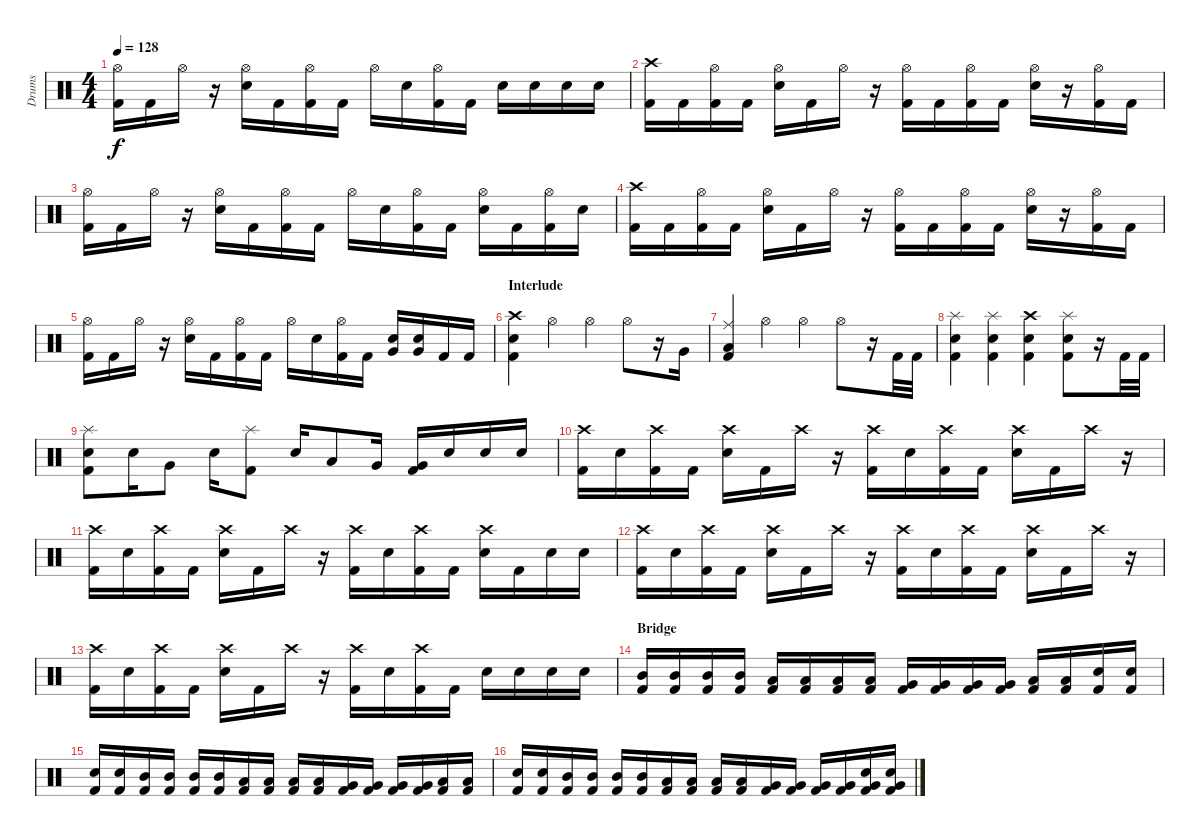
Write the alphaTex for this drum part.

\track ("Drums" "Drums") {instrument percussion}
\staff {score}
\articulation defaults
\ts (4 4)
\tempo 128
\clef neutral
\ks c
("Hi-Hat (open)" "Kick (hit) 2").16{dy f} "Kick (hit) 2".16 "Hi-Hat (open)".16 r.16 ("Hi-Hat (open)" "Electric Snare (hit)").16 "Kick (hit) 2".16 ("Hi-Hat (open)" "Kick (hit) 2").16 "Kick (hit) 2".16 "Hi-Hat (open)".16 "Electric Snare (hit)".16 ("Hi-Hat (open)" "Kick (hit) 2").16 "Kick (hit) 2".16 "Electric Snare (hit)".16 "Electric Snare (hit)".16 "Electric Snare (hit)".16 "Electric Snare (hit)".16 |
("Crash high (hit)" "Kick (hit) 2").16 "Kick (hit) 2".16 ("Hi-Hat (open)" "Kick (hit) 2").16 "Kick (hit) 2".16 ("Hi-Hat (open)" "Electric Snare (hit)").16 "Kick (hit) 2".16 "Hi-Hat (open)".16 r.16 ("Hi-Hat (open)" "Kick (hit) 2").16 "Kick (hit) 2".16 ("Hi-Hat (open)" "Kick (hit) 2").16 "Kick (hit) 2".16 ("Hi-Hat (open)" "Electric Snare (hit)").16 r.16 ("Hi-Hat (open)" "Kick (hit) 2").16 "Kick (hit) 2".16 |
("Hi-Hat (open)" "Kick (hit) 2").16 "Kick (hit) 2".16 "Hi-Hat (open)".16 r.16 ("Hi-Hat (open)" "Electric Snare (hit)").16 "Kick (hit) 2".16 ("Hi-Hat (open)" "Kick (hit) 2").16 "Kick (hit) 2".16 "Hi-Hat (open)".16 "Electric Snare (hit)".16 ("Hi-Hat (open)" "Kick (hit) 2").16 "Kick (hit) 2".16 ("Hi-Hat (open)" "Electric Snare (hit)").16 "Kick (hit) 2".16 ("Hi-Hat (open)" "Kick (hit) 2").16 "Electric Snare (hit)".16 |
("Crash high (hit)" "Kick (hit) 2").16 "Kick (hit) 2".16 ("Hi-Hat (open)" "Kick (hit) 2").16 "Kick (hit) 2".16 ("Hi-Hat (open)" "Electric Snare (hit)").16 "Kick (hit) 2".16 "Hi-Hat (open)".16 r.16 ("Hi-Hat (open)" "Kick (hit) 2").16 "Kick (hit) 2".16 ("Hi-Hat (open)" "Kick (hit) 2").16 "Kick (hit) 2".16 ("Hi-Hat (open)" "Electric Snare (hit)").16 r.16 ("Hi-Hat (open)" "Kick (hit) 2").16 "Kick (hit) 2".16 |
("Hi-Hat (open)" "Kick (hit) 2").16 "Kick (hit) 2".16 "Hi-Hat (open)".16 r.16 ("Hi-Hat (open)" "Electric Snare (hit)").16 "Kick (hit) 2".16 ("Hi-Hat (open)" "Kick (hit) 2").16 "Kick (hit) 2".16 "Hi-Hat (open)".16 "Electric Snare (hit)".16 ("Hi-Hat (open)" "Kick (hit) 2").16 "Kick (hit) 2".16 ("Very Low Tom (hit)" "Electric Snare (hit)").16 ("Very Low Tom (hit)" "Electric Snare (hit)").16 "Kick (hit) 2".16 "Kick (hit) 2".16 |
\section ("" "Interlude")
("Crash high (hit)" "Electric Snare (hit)" "Kick (hit) 2").4 "Hi-Hat (open)".4 "Hi-Hat (open)".4 "Hi-Hat (open)".8 r.16 "Very Low Tom (hit)".16 |
("Ride (middle)" "Low Floor Tom (hit)" "Kick (hit) 2").4 "Hi-Hat (open)".4 "Hi-Hat (open)".4 "Hi-Hat (open)".8 r.16 "Kick (hit) 2".32 "Kick (hit) 2".32 |
("Splash (hit)" "Electric Snare (hit)" "Kick (hit) 2").4 ("Splash (hit)" "Electric Snare (hit)" "Kick (hit) 2").4 ("Crash high (hit)" "Electric Snare (hit)" "Kick (hit) 2").4 ("Splash (hit)" "Electric Snare (hit)" "Kick (hit) 2").8 r.16 "Kick (hit) 2".32 "Kick (hit) 2".32 |
("Splash (hit)" "Electric Snare (hit)" "Kick (hit) 2").8 "Electric Snare (hit)".16 "Very Low Tom (hit)".8 "Electric Snare (hit)".16 ("Splash (hit)" "Kick (hit) 2").8 "Electric Snare (hit)".16 "Low Tom (hit)".8 "Very Low Tom (hit)".16 ("Very Low Tom (hit)" "Kick (hit) 2").16 "Electric Snare (hit)".16 "Electric Snare (hit)".16 "Electric Snare (hit)".16 |
("Crash high (hit)" "Kick (hit) 2").16 "Electric Snare (hit)".16 ("Crash high (hit)" "Kick (hit) 2").16 "Kick (hit) 2".16 ("Crash high (hit)" "Electric Snare (hit)").16 "Kick (hit) 2".16 "Crash high (hit)".16 r.16 ("Crash high (hit)" "Kick (hit) 2").16 "Electric Snare (hit)".16 ("Crash high (hit)" "Kick (hit) 2").16 "Kick (hit) 2".16 ("Crash high (hit)" "Electric Snare (hit)").16 "Kick (hit) 2".16 "Crash high (hit)".16 r.16 |
("Crash high (hit)" "Kick (hit) 2").16 "Electric Snare (hit)".16 ("Crash high (hit)" "Kick (hit) 2").16 "Kick (hit) 2".16 ("Crash high (hit)" "Electric Snare (hit)").16 "Kick (hit) 2".16 "Crash high (hit)".16 r.16 ("Crash high (hit)" "Kick (hit) 2").16 "Electric Snare (hit)".16 ("Crash high (hit)" "Kick (hit) 2").16 "Kick (hit) 2".16 ("Crash high (hit)" "Electric Snare (hit)").16 "Kick (hit) 2".16 "Electric Snare (hit)".16 "Electric Snare (hit)".16 |
("Crash high (hit)" "Kick (hit) 2").16 "Electric Snare (hit)".16 ("Crash high (hit)" "Kick (hit) 2").16 "Kick (hit) 2".16 ("Crash high (hit)" "Electric Snare (hit)").16 "Kick (hit) 2".16 "Crash high (hit)".16 r.16 ("Crash high (hit)" "Kick (hit) 2").16 "Electric Snare (hit)".16 ("Crash high (hit)" "Kick (hit) 2").16 "Kick (hit) 2".16 ("Crash high (hit)" "Electric Snare (hit)").16 "Kick (hit) 2".16 "Crash high (hit)".16 r.16 |
("Crash high (hit)" "Kick (hit) 2").16 "Electric Snare (hit)".16 ("Crash high (hit)" "Kick (hit) 2").16 "Kick (hit) 2".16 ("Crash high (hit)" "Electric Snare (hit)").16 "Kick (hit) 2".16 "Crash high (hit)".16 r.16 ("Crash high (hit)" "Kick (hit) 2").16 "Electric Snare (hit)".16 ("Crash high (hit)" "Kick (hit) 2").16 "Kick (hit) 2".16 "Electric Snare (hit)".16 "Electric Snare (hit)".16 "Electric Snare (hit)".16 "Electric Snare (hit)".16 |
\section ("" "Bridge")
("Mid Tom (hit)" "Kick (hit) 2").16 ("Mid Tom (hit)" "Kick (hit) 2").16 ("Mid Tom (hit)" "Kick (hit) 2").16 ("Mid Tom (hit)" "Kick (hit) 2").16 ("Low Tom (hit)" "Kick (hit) 2").16 ("Low Tom (hit)" "Kick (hit) 2").16 ("Low Tom (hit)" "Kick (hit) 2").16 ("Low Tom (hit)" "Kick (hit) 2").16 ("Very Low Tom (hit)" "Kick (hit) 2").16 ("Very Low Tom (hit)" "Kick (hit) 2").16 ("Very Low Tom (hit)" "Kick (hit) 2").16 ("Very Low Tom (hit)" "Kick (hit) 2").16 ("Low Floor Tom (hit)" "Kick (hit) 2").16 ("Low Floor Tom (hit)" "Kick (hit) 2").16 ("Electric Snare (hit)" "Kick (hit) 2").16 ("Electric Snare (hit)" "Kick (hit) 2").16 |
("Electric Snare (hit)" "Kick (hit) 2").16 ("Electric Snare (hit)" "Kick (hit) 2").16 ("Mid Tom (hit)" "Kick (hit) 2").16 ("Mid Tom (hit)" "Kick (hit) 2").16 ("Mid Tom (hit)" "Kick (hit) 2").16 ("Mid Tom (hit)" "Kick (hit) 2").16 ("Low Tom (hit)" "Kick (hit) 2").16 ("Low Tom (hit)" "Kick (hit) 2").16 ("Low Tom (hit)" "Kick (hit) 2").16 ("Low Tom (hit)" "Kick (hit) 2").16 ("Very Low Tom (hit)" "Kick (hit) 2").16 ("Very Low Tom (hit)" "Kick (hit) 2").16 ("Very Low Tom (hit)" "Kick (hit) 2").16 ("Very Low Tom (hit)" "Kick (hit) 2").16 ("Low Floor Tom (hit)" "Kick (hit) 2").16 ("Low Floor Tom (hit)" "Kick (hit) 2").16 |
("Electric Snare (hit)" "Kick (hit) 2").16 ("Electric Snare (hit)" "Kick (hit) 2").16 ("Mid Tom (hit)" "Kick (hit) 2").16 ("Mid Tom (hit)" "Kick (hit) 2").16 ("Mid Tom (hit)" "Kick (hit) 2").16 ("Mid Tom (hit)" "Kick (hit) 2").16 ("Low Tom (hit)" "Kick (hit) 2").16 ("Low Tom (hit)" "Kick (hit) 2").16 ("Low Tom (hit)" "Kick (hit) 2").16 ("Low Tom (hit)" "Kick (hit) 2").16 ("Very Low Tom (hit)" "Kick (hit) 2").16 ("Very Low Tom (hit)" "Kick (hit) 2").16 ("Very Low Tom (hit)" "Kick (hit) 2").16 ("Very Low Tom (hit)" "Kick (hit) 2").16 ("Electric Snare (hit)" "Very Low Tom (hit)" "Kick (hit) 2").16 ("Electric Snare (hit)" "Very Low Tom (hit)" "Kick (hit) 2").16
